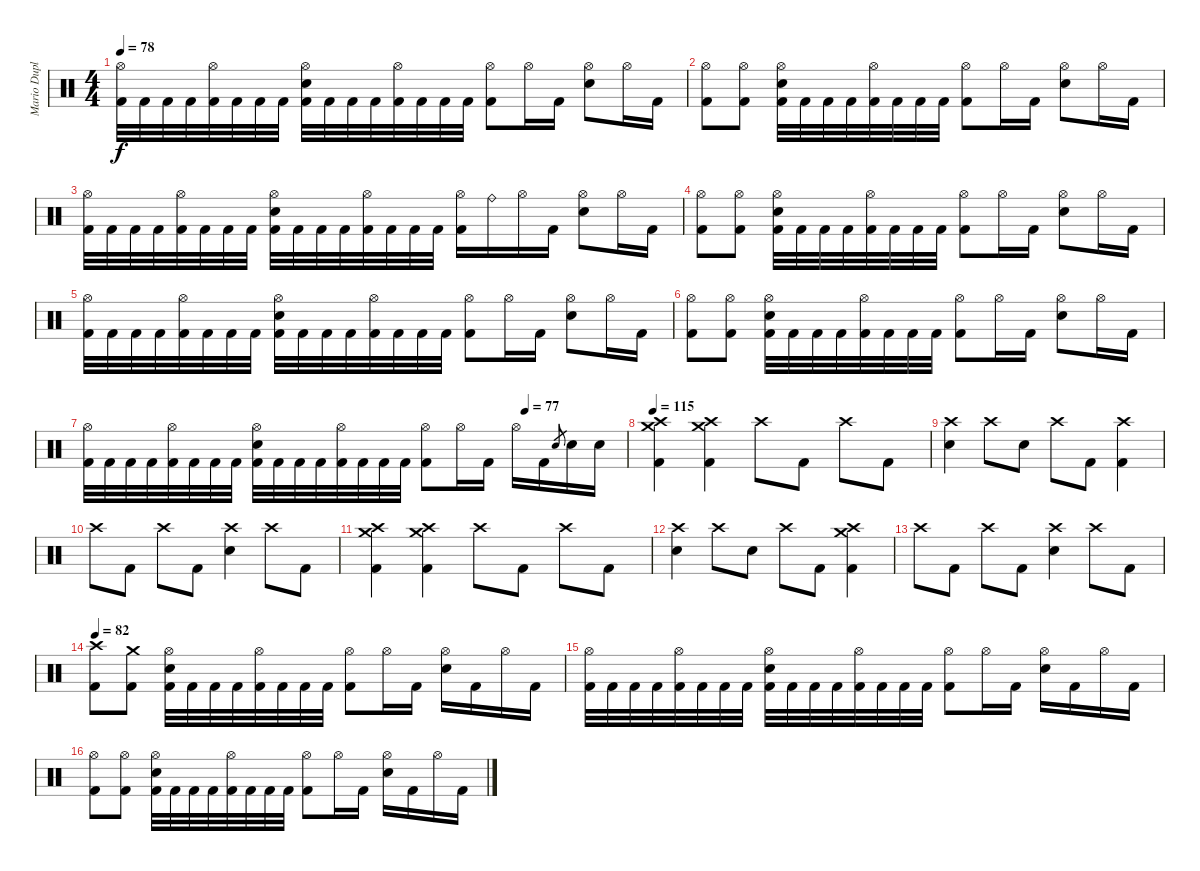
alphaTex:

\track ("Mario Duplantier " "Mario Dupl") {instrument percussion}
\staff {score}
\articulation defaults
\ts (4 4)
\tempo 78
\clef neutral
\ks c
("Hi-Hat (open)" "Kick (hit) 2").32{dy f} "Kick (hit) 2".32 "Kick (hit) 2".32 "Kick (hit) 2".32 ("Hi-Hat (open)" "Kick (hit) 2").32 "Kick (hit) 2".32 "Kick (hit) 2".32 "Kick (hit) 2".32 ("Electric Snare (hit)" "Hi-Hat (open)" "Kick (hit) 2").32 "Kick (hit) 2".32 "Kick (hit) 2".32 "Kick (hit) 2".32 ("Hi-Hat (open)" "Kick (hit) 2").32 "Kick (hit) 2".32 "Kick (hit) 2".32 "Kick (hit) 2".32 ("Hi-Hat (open)" "Kick (hit) 2").8 "Hi-Hat (open)".16 "Kick (hit) 2".16 ("Hi-Hat (open)" "Electric Snare (hit)").8 "Hi-Hat (open)".16 "Kick (hit) 2".16 |
("Hi-Hat (open)" "Kick (hit) 2").8 ("Hi-Hat (open)" "Kick (hit) 2").8 ("Hi-Hat (open)" "Electric Snare (hit)" "Kick (hit) 2").32 "Kick (hit) 2".32 "Kick (hit) 2".32 "Kick (hit) 2".32 ("Hi-Hat (open)" "Kick (hit) 2").32 "Kick (hit) 2".32 "Kick (hit) 2".32 "Kick (hit) 2".32 ("Hi-Hat (open)" "Kick (hit) 2").8 "Hi-Hat (open)".16 "Kick (hit) 2".16 ("Hi-Hat (open)" "Electric Snare (hit)").8 "Hi-Hat (open)".16 "Kick (hit) 2".16 |
("Hi-Hat (open)" "Kick (hit) 2").32 "Kick (hit) 2".32 "Kick (hit) 2".32 "Kick (hit) 2".32 ("Hi-Hat (open)" "Kick (hit) 2").32 "Kick (hit) 2".32 "Kick (hit) 2".32 "Kick (hit) 2".32 ("Electric Snare (hit)" "Hi-Hat (open)" "Kick (hit) 2").32 "Kick (hit) 2".32 "Kick (hit) 2".32 "Kick (hit) 2".32 ("Hi-Hat (open)" "Kick (hit) 2").32 "Kick (hit) 2".32 "Kick (hit) 2".32 "Kick (hit) 2".32 ("Hi-Hat (open)" "Kick (hit) 2").16 "Ride (bell)".16 "Hi-Hat (open)".16 "Kick (hit) 2".16 ("Hi-Hat (open)" "Electric Snare (hit)").8 "Hi-Hat (open)".16 "Kick (hit) 2".16 |
("Hi-Hat (open)" "Kick (hit) 2").8 ("Hi-Hat (open)" "Kick (hit) 2").8 ("Hi-Hat (open)" "Electric Snare (hit)" "Kick (hit) 2").32 "Kick (hit) 2".32 "Kick (hit) 2".32 "Kick (hit) 2".32 ("Hi-Hat (open)" "Kick (hit) 2").32 "Kick (hit) 2".32 "Kick (hit) 2".32 "Kick (hit) 2".32 ("Hi-Hat (open)" "Kick (hit) 2").8 "Hi-Hat (open)".16 "Kick (hit) 2".16 ("Hi-Hat (open)" "Electric Snare (hit)").8 "Hi-Hat (open)".16 "Kick (hit) 2".16 |
("Hi-Hat (open)" "Kick (hit) 2").32 "Kick (hit) 2".32 "Kick (hit) 2".32 "Kick (hit) 2".32 ("Hi-Hat (open)" "Kick (hit) 2").32 "Kick (hit) 2".32 "Kick (hit) 2".32 "Kick (hit) 2".32 ("Electric Snare (hit)" "Hi-Hat (open)" "Kick (hit) 2").32 "Kick (hit) 2".32 "Kick (hit) 2".32 "Kick (hit) 2".32 ("Hi-Hat (open)" "Kick (hit) 2").32 "Kick (hit) 2".32 "Kick (hit) 2".32 "Kick (hit) 2".32 ("Hi-Hat (open)" "Kick (hit) 2").8 "Hi-Hat (open)".16 "Kick (hit) 2".16 ("Hi-Hat (open)" "Electric Snare (hit)").8 "Hi-Hat (open)".16 "Kick (hit) 2".16 |
("Hi-Hat (open)" "Kick (hit) 2").8 ("Hi-Hat (open)" "Kick (hit) 2").8 ("Hi-Hat (open)" "Electric Snare (hit)" "Kick (hit) 2").32 "Kick (hit) 2".32 "Kick (hit) 2".32 "Kick (hit) 2".32 ("Hi-Hat (open)" "Kick (hit) 2").32 "Kick (hit) 2".32 "Kick (hit) 2".32 "Kick (hit) 2".32 ("Hi-Hat (open)" "Kick (hit) 2").8 "Hi-Hat (open)".16 "Kick (hit) 2".16 ("Hi-Hat (open)" "Electric Snare (hit)").8 "Hi-Hat (open)".16 "Kick (hit) 2".16 |
\tempo (77 0.8125)
("Hi-Hat (open)" "Kick (hit) 2").32 "Kick (hit) 2".32 "Kick (hit) 2".32 "Kick (hit) 2".32 ("Hi-Hat (open)" "Kick (hit) 2").32 "Kick (hit) 2".32 "Kick (hit) 2".32 "Kick (hit) 2".32 ("Electric Snare (hit)" "Hi-Hat (open)" "Kick (hit) 2").32 "Kick (hit) 2".32 "Kick (hit) 2".32 "Kick (hit) 2".32 ("Hi-Hat (open)" "Kick (hit) 2").32 "Kick (hit) 2".32 "Kick (hit) 2".32 "Kick (hit) 2".32 ("Hi-Hat (open)" "Kick (hit) 2").8 "Hi-Hat (open)".16 "Kick (hit) 2".16 "Hi-Hat (open)".16 "Kick (hit) 2".16 "Electric Snare (hit)".8{gr} "Electric Snare (hit)".16 "Electric Snare (hit)".16 |
\tempo 115
("Crash medium (hit)" "Crash high (hit)" "Kick (hit) 2").4 ("Crash high (hit)" "Crash medium (hit)" "Kick (hit) 2").4 "Crash high (hit)".8 "Kick (hit) 2".8 "Crash high (hit)".8 "Kick (hit) 2".8 |
("Crash high (hit)" "Electric Snare (hit)").4 "Crash high (hit)".8 "Electric Snare (hit)".8 "Crash high (hit)".8 "Kick (hit) 2".8 ("Crash high (hit)" "Kick (hit) 2").4 |
"Crash high (hit)".8 "Kick (hit) 2".8 "Crash high (hit)".8 "Kick (hit) 2".8 ("Crash high (hit)" "Electric Snare (hit)").4 "Crash high (hit)".8 "Kick (hit) 2".8 |
("Crash medium (hit)" "Crash high (hit)" "Kick (hit) 2").4 ("Crash medium (hit)" "Crash high (hit)" "Kick (hit) 2").4 "Crash high (hit)".8 "Kick (hit) 2".8 "Crash high (hit)".8 "Kick (hit) 2".8 |
("Crash high (hit)" "Electric Snare (hit)").4 "Crash high (hit)".8 "Electric Snare (hit)".8 "Crash high (hit)".8 "Kick (hit) 2".8 ("Crash medium (hit)" "Crash high (hit)" "Kick (hit) 2").4 |
"Crash high (hit)".8 "Kick (hit) 2".8 "Crash high (hit)".8 "Kick (hit) 2".8 ("Crash high (hit)" "Electric Snare (hit)").4 "Crash high (hit)".8 "Kick (hit) 2".8 |
\tempo 82
("Crash high (hit)" "Kick (hit) 2").8 ("Crash medium (hit)" "Kick (hit) 2").8 ("Hi-Hat (open)" "Electric Snare (hit)" "Kick (hit) 2").32 "Kick (hit) 2".32 "Kick (hit) 2".32 "Kick (hit) 2".32 ("Hi-Hat (open)" "Kick (hit) 2").32 "Kick (hit) 2".32 "Kick (hit) 2".32 "Kick (hit) 2".32 ("Hi-Hat (open)" "Kick (hit) 2").8 "Hi-Hat (open)".16 "Kick (hit) 2".16 ("Hi-Hat (open)" "Electric Snare (hit)").16 "Kick (hit) 2".16 "Hi-Hat (open)".16 "Kick (hit) 2".16 |
("Hi-Hat (open)" "Kick (hit) 2").32 "Kick (hit) 2".32 "Kick (hit) 2".32 "Kick (hit) 2".32 ("Hi-Hat (open)" "Kick (hit) 2").32 "Kick (hit) 2".32 "Kick (hit) 2".32 "Kick (hit) 2".32 ("Electric Snare (hit)" "Hi-Hat (open)" "Kick (hit) 2").32 "Kick (hit) 2".32 "Kick (hit) 2".32 "Kick (hit) 2".32 ("Hi-Hat (open)" "Kick (hit) 2").32 "Kick (hit) 2".32 "Kick (hit) 2".32 "Kick (hit) 2".32 ("Hi-Hat (open)" "Kick (hit) 2").8 "Hi-Hat (open)".16 "Kick (hit) 2".16 ("Hi-Hat (open)" "Electric Snare (hit)").16 "Kick (hit) 2".16 "Hi-Hat (open)".16 "Kick (hit) 2".16 |
("Hi-Hat (open)" "Kick (hit) 2").8 ("Hi-Hat (open)" "Kick (hit) 2").8 ("Hi-Hat (open)" "Electric Snare (hit)" "Kick (hit) 2").32 "Kick (hit) 2".32 "Kick (hit) 2".32 "Kick (hit) 2".32 ("Hi-Hat (open)" "Kick (hit) 2").32 "Kick (hit) 2".32 "Kick (hit) 2".32 "Kick (hit) 2".32 ("Hi-Hat (open)" "Kick (hit) 2").8 "Hi-Hat (open)".16 "Kick (hit) 2".16 ("Hi-Hat (open)" "Electric Snare (hit)").16 "Kick (hit) 2".16 "Hi-Hat (open)".16 "Kick (hit) 2".16
